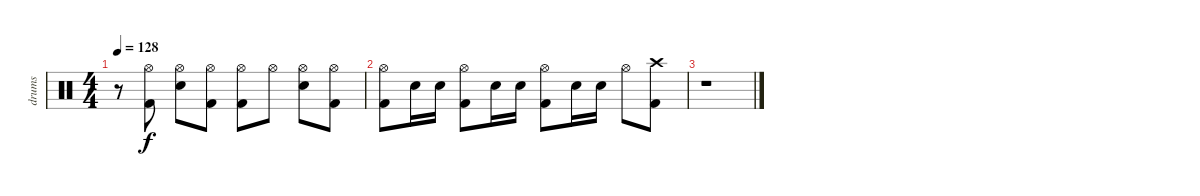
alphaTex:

\track ("drums" "drums") {instrument percussion}
\staff {score}
\articulation defaults
\ts (4 4)
\tempo 128
\clef neutral
\ks c
r.8{dy f} ("Kick (hit) 2" "Hi-Hat (open)").8 ("Snare (hit) 2" "Hi-Hat (open)").8 ("Kick (hit) 2" "Hi-Hat (open)").8 ("Kick (hit) 2" "Hi-Hat (open)").8 "Hi-Hat (open)".8 ("Snare (hit) 2" "Hi-Hat (open)").8 ("Kick (hit) 2" "Hi-Hat (open)").8 |
("Kick (hit) 2" "Hi-Hat (open)").8 "Snare (hit) 2".16 "Snare (hit) 2".16 ("Kick (hit) 2" "Hi-Hat (open)").8 "Snare (hit) 2".16 "Snare (hit) 2".16 ("Kick (hit) 2" "Hi-Hat (open)").8 "Snare (hit) 2".16 "Snare (hit) 2".16 "Hi-Hat (open)".8 ("Crash high (hit)" "Kick (hit) 2").8 |
r.1
